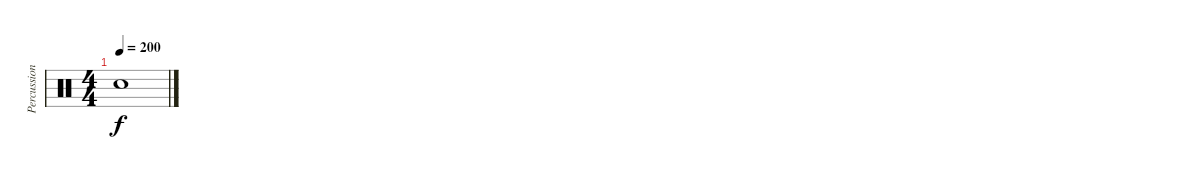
\track ("Percussions" "Percussion") {instrument percussion}
\staff {score}
\articulation defaults
\ts (4 4)
\tempo 200
\clef neutral
\ks c "Snare (hit)"{t}.1{dy f}
